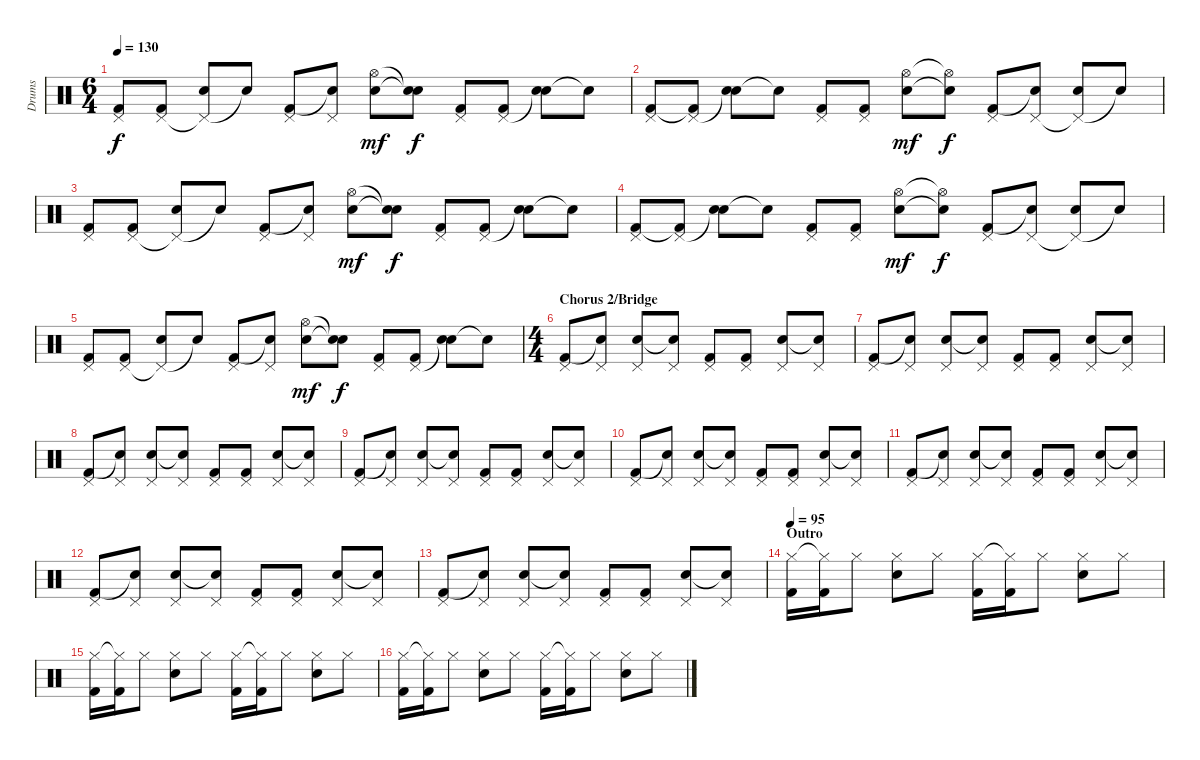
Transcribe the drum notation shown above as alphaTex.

\track ("Drums" "Drums") {instrument percussion}
\staff {score}
\articulation defaults
\ts (6 4)
\tempo 130
\clef neutral
\ks c
("Pedal Hi-Hat (hit)" "Kick (hit) 2").8{dy f} ("Pedal Hi-Hat (hit)" "Kick (hit) 2").8 ("Pedal Hi-Hat (hit)"{t} "Electric Snare (hit)").8 "Snare (hit)"{t}.8 ("Pedal Hi-Hat (hit)" "Kick (hit) 2").8 ("Pedal Hi-Hat (hit)" "Snare (hit)"{t}).8 ("Hi-Hat (open)" "Electric Snare (hit)").8{dy mf} ("Snare (hit)"{t} "Snare (hit)"{t}).8{dy f} ("Pedal Hi-Hat (hit)" "Kick (hit) 2").8 ("Pedal Hi-Hat (hit)" "Kick (hit) 2").8 ("Snare (hit)"{t} "Electric Snare (hit)").8 "Snare (hit)"{t}.8 |
("Pedal Hi-Hat (hit)" "Kick (hit) 2").8 ("Pedal Hi-Hat (hit)" "Kick (hit) 2"{t}).8 ("Snare (hit)"{t} "Electric Snare (hit)").8 "Snare (hit)"{t}.8 ("Pedal Hi-Hat (hit)" "Kick (hit) 2").8 ("Pedal Hi-Hat (hit)" "Kick (hit) 2").8 ("Hi-Hat (open)" "Electric Snare (hit)").8{dy mf} ("Hi-Hat (open)"{t} "Electric Snare (hit)"{t}).8{dy f} ("Pedal Hi-Hat (hit)" "Kick (hit) 2").8 ("Pedal Hi-Hat (hit)" "Snare (hit)"{t}).8 ("Pedal Hi-Hat (hit)"{t} "Electric Snare (hit)").8 "Snare (hit)"{t}.8 |
("Pedal Hi-Hat (hit)" "Kick (hit) 2").8 ("Pedal Hi-Hat (hit)" "Kick (hit) 2").8 ("Pedal Hi-Hat (hit)"{t} "Electric Snare (hit)").8 "Snare (hit)"{t}.8 ("Pedal Hi-Hat (hit)" "Kick (hit) 2").8 ("Pedal Hi-Hat (hit)" "Snare (hit)"{t}).8 ("Hi-Hat (open)" "Electric Snare (hit)").8{dy mf} ("Snare (hit)"{t} "Snare (hit)"{t}).8{dy f} ("Pedal Hi-Hat (hit)" "Kick (hit) 2").8 ("Pedal Hi-Hat (hit)" "Kick (hit) 2").8 ("Snare (hit)"{t} "Electric Snare (hit)").8 "Snare (hit)"{t}.8 |
("Pedal Hi-Hat (hit)" "Kick (hit) 2").8 ("Pedal Hi-Hat (hit)" "Kick (hit) 2"{t}).8 ("Snare (hit)"{t} "Electric Snare (hit)").8 "Snare (hit)"{t}.8 ("Pedal Hi-Hat (hit)" "Kick (hit) 2").8 ("Pedal Hi-Hat (hit)" "Kick (hit) 2").8 ("Hi-Hat (open)" "Electric Snare (hit)").8{dy mf} ("Hi-Hat (open)"{t} "Electric Snare (hit)"{t}).8{dy f} ("Pedal Hi-Hat (hit)" "Kick (hit) 2").8 ("Pedal Hi-Hat (hit)" "Snare (hit)"{t}).8 ("Pedal Hi-Hat (hit)"{t} "Electric Snare (hit)").8 "Snare (hit)"{t}.8 |
("Pedal Hi-Hat (hit)" "Kick (hit) 2").8 ("Pedal Hi-Hat (hit)" "Kick (hit) 2").8 ("Pedal Hi-Hat (hit)"{t} "Electric Snare (hit)").8 "Snare (hit)"{t}.8 ("Pedal Hi-Hat (hit)" "Kick (hit) 2").8 ("Pedal Hi-Hat (hit)" "Snare (hit)"{t}).8 ("Hi-Hat (open)" "Electric Snare (hit)").8{dy mf} ("Snare (hit)"{t} "Snare (hit)"{t}).8{dy f} ("Pedal Hi-Hat (hit)" "Kick (hit) 2").8 ("Pedal Hi-Hat (hit)" "Kick (hit) 2").8 ("Snare (hit)"{t} "Electric Snare (hit)").8 "Snare (hit)"{t}.8 |
\ts (4 4)
\section ("" "Chorus 2/Bridge")
("Pedal Hi-Hat (hit)" "Kick (hit) 2").8 ("Pedal Hi-Hat (hit)" "Snare (hit)"{t}).8 ("Pedal Hi-Hat (hit)" "Electric Snare (hit)").8 ("Pedal Hi-Hat (hit)" "Snare (hit)"{t}).8 ("Pedal Hi-Hat (hit)" "Kick (hit) 2").8 ("Pedal Hi-Hat (hit)" "Kick (hit) 2").8 ("Pedal Hi-Hat (hit)" "Electric Snare (hit)").8 ("Pedal Hi-Hat (hit)" "Snare (hit)"{t}).8 |
("Pedal Hi-Hat (hit)" "Kick (hit) 2").8 ("Pedal Hi-Hat (hit)" "Snare (hit)"{t}).8 ("Pedal Hi-Hat (hit)" "Electric Snare (hit)").8 ("Pedal Hi-Hat (hit)" "Snare (hit)"{t}).8 ("Pedal Hi-Hat (hit)" "Kick (hit) 2").8 ("Pedal Hi-Hat (hit)" "Kick (hit) 2").8 ("Pedal Hi-Hat (hit)" "Electric Snare (hit)").8 ("Pedal Hi-Hat (hit)" "Snare (hit)"{t}).8 |
("Pedal Hi-Hat (hit)" "Kick (hit) 2").8 ("Pedal Hi-Hat (hit)" "Snare (hit)"{t}).8 ("Pedal Hi-Hat (hit)" "Electric Snare (hit)").8 ("Pedal Hi-Hat (hit)" "Snare (hit)"{t}).8 ("Pedal Hi-Hat (hit)" "Kick (hit) 2").8 ("Pedal Hi-Hat (hit)" "Kick (hit) 2").8 ("Pedal Hi-Hat (hit)" "Electric Snare (hit)").8 ("Pedal Hi-Hat (hit)" "Snare (hit)"{t}).8 |
("Pedal Hi-Hat (hit)" "Kick (hit) 2").8 ("Pedal Hi-Hat (hit)" "Snare (hit)"{t}).8 ("Pedal Hi-Hat (hit)" "Electric Snare (hit)").8 ("Pedal Hi-Hat (hit)" "Snare (hit)"{t}).8 ("Pedal Hi-Hat (hit)" "Kick (hit) 2").8 ("Pedal Hi-Hat (hit)" "Kick (hit) 2").8 ("Pedal Hi-Hat (hit)" "Electric Snare (hit)").8 ("Pedal Hi-Hat (hit)" "Snare (hit)"{t}).8 |
("Pedal Hi-Hat (hit)" "Kick (hit) 2").8 ("Pedal Hi-Hat (hit)" "Snare (hit)"{t}).8 ("Pedal Hi-Hat (hit)" "Electric Snare (hit)").8 ("Pedal Hi-Hat (hit)" "Snare (hit)"{t}).8 ("Pedal Hi-Hat (hit)" "Kick (hit) 2").8 ("Pedal Hi-Hat (hit)" "Kick (hit) 2").8 ("Pedal Hi-Hat (hit)" "Electric Snare (hit)").8 ("Pedal Hi-Hat (hit)" "Snare (hit)"{t}).8 |
("Pedal Hi-Hat (hit)" "Kick (hit) 2").8 ("Pedal Hi-Hat (hit)" "Snare (hit)"{t}).8 ("Pedal Hi-Hat (hit)" "Electric Snare (hit)").8 ("Pedal Hi-Hat (hit)" "Snare (hit)"{t}).8 ("Pedal Hi-Hat (hit)" "Kick (hit) 2").8 ("Pedal Hi-Hat (hit)" "Kick (hit) 2").8 ("Pedal Hi-Hat (hit)" "Electric Snare (hit)").8 ("Pedal Hi-Hat (hit)" "Snare (hit)"{t}).8 |
("Pedal Hi-Hat (hit)" "Kick (hit) 2").8 ("Pedal Hi-Hat (hit)" "Snare (hit)"{t}).8 ("Pedal Hi-Hat (hit)" "Electric Snare (hit)").8 ("Pedal Hi-Hat (hit)" "Snare (hit)"{t}).8 ("Pedal Hi-Hat (hit)" "Kick (hit) 2").8 ("Pedal Hi-Hat (hit)" "Kick (hit) 2").8 ("Pedal Hi-Hat (hit)" "Electric Snare (hit)").8 ("Pedal Hi-Hat (hit)" "Snare (hit)"{t}).8 |
("Pedal Hi-Hat (hit)" "Kick (hit) 2").8 ("Pedal Hi-Hat (hit)" "Snare (hit)"{t}).8 ("Pedal Hi-Hat (hit)" "Electric Snare (hit)").8 ("Pedal Hi-Hat (hit)" "Snare (hit)"{t}).8 ("Pedal Hi-Hat (hit)" "Kick (hit) 2").8 ("Pedal Hi-Hat (hit)" "Kick (hit) 2").8 ("Pedal Hi-Hat (hit)" "Electric Snare (hit)").8 ("Pedal Hi-Hat (hit)" "Snare (hit)"{t}).8 |
\section ("" "Outro")
\tempo 95
("Hi-Hat (closed)" "Kick (hit) 2").16 ("Hi-Hat (closed)"{t} "Kick (hit) 2").16 "Hi-Hat (closed)".8 ("Hi-Hat (closed)" "Electric Snare (hit)").8 "Hi-Hat (closed)".8 ("Hi-Hat (closed)" "Kick (hit) 2").16 ("Hi-Hat (closed)"{t} "Kick (hit) 2").16 "Hi-Hat (closed)".8 ("Hi-Hat (closed)" "Electric Snare (hit)").8 "Hi-Hat (closed)".8 |
("Hi-Hat (closed)" "Kick (hit) 2").16 ("Hi-Hat (closed)"{t} "Kick (hit) 2").16 "Hi-Hat (closed)".8 ("Hi-Hat (closed)" "Electric Snare (hit)").8 "Hi-Hat (closed)".8 ("Hi-Hat (closed)" "Kick (hit) 2").16 ("Hi-Hat (closed)"{t} "Kick (hit) 2").16 "Hi-Hat (closed)".8 ("Hi-Hat (closed)" "Electric Snare (hit)").8 "Hi-Hat (closed)".8 |
("Hi-Hat (closed)" "Kick (hit) 2").16 ("Hi-Hat (closed)"{t} "Kick (hit) 2").16 "Hi-Hat (closed)".8 ("Hi-Hat (closed)" "Electric Snare (hit)").8 "Hi-Hat (closed)".8 ("Hi-Hat (closed)" "Kick (hit) 2").16 ("Hi-Hat (closed)"{t} "Kick (hit) 2").16 "Hi-Hat (closed)".8 ("Hi-Hat (closed)" "Electric Snare (hit)").8 "Hi-Hat (closed)".8
